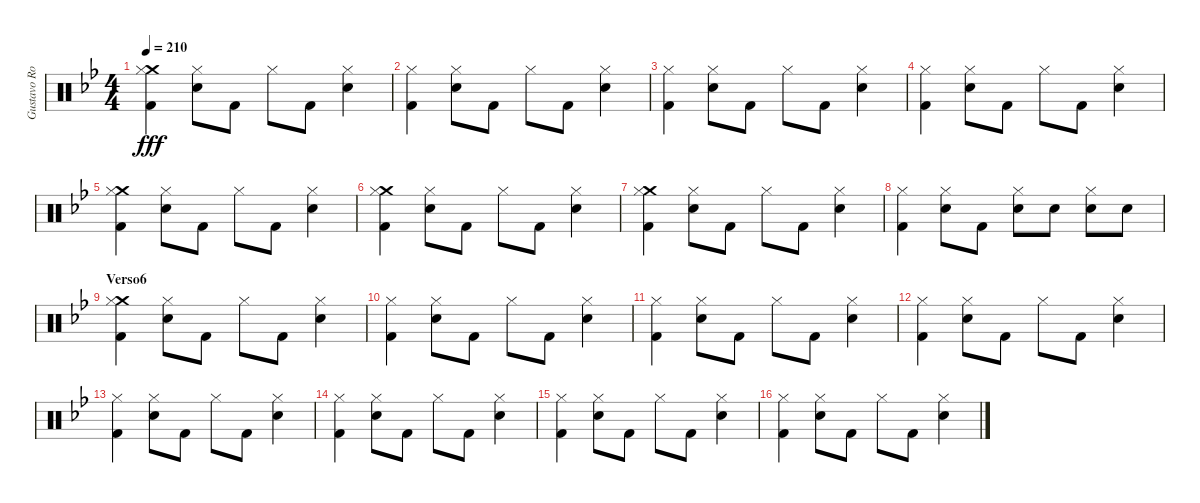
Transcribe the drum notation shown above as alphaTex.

\track ("Gustavo Rowek" "Gustavo Ro") {instrument percussion}
\staff {score}
\articulation defaults
\ts (4 4)
\tempo 210
\clef neutral
\ks gminor
("Crash medium (hit)" "Hi-Hat (closed)" "Kick (hit) 2").4{dy fff} ("Hi-Hat (closed)" "Snare (hit) 2").8 "Kick (hit) 2".8 "Hi-Hat (closed)".8 "Kick (hit) 2".8 ("Hi-Hat (closed)" "Snare (hit) 2").4 |
("Hi-Hat (closed)" "Kick (hit) 2").4 ("Hi-Hat (closed)" "Snare (hit) 2").8 "Kick (hit) 2".8 "Hi-Hat (closed)".8 "Kick (hit) 2".8 ("Hi-Hat (closed)" "Snare (hit) 2").4 |
("Hi-Hat (closed)" "Kick (hit) 2").4 ("Hi-Hat (closed)" "Snare (hit) 2").8 "Kick (hit) 2".8 "Hi-Hat (closed)".8 "Kick (hit) 2".8 ("Hi-Hat (closed)" "Snare (hit) 2").4 |
("Hi-Hat (closed)" "Kick (hit) 2").4 ("Hi-Hat (closed)" "Snare (hit) 2").8 "Kick (hit) 2".8 "Hi-Hat (closed)".8 "Kick (hit) 2".8 ("Hi-Hat (closed)" "Snare (hit) 2").4 |
("Crash medium (hit)" "Hi-Hat (closed)" "Kick (hit) 2").4 ("Hi-Hat (closed)" "Snare (hit) 2").8 "Kick (hit) 2".8 "Hi-Hat (closed)".8 "Kick (hit) 2".8 ("Hi-Hat (closed)" "Snare (hit) 2").4 |
("Crash medium (hit)" "Hi-Hat (closed)" "Kick (hit) 2").4 ("Hi-Hat (closed)" "Snare (hit) 2").8 "Kick (hit) 2".8 "Hi-Hat (closed)".8 "Kick (hit) 2".8 ("Hi-Hat (closed)" "Snare (hit) 2").4 |
("Crash medium (hit)" "Hi-Hat (closed)" "Kick (hit) 2").4 ("Hi-Hat (closed)" "Snare (hit) 2").8 "Kick (hit) 2".8 "Hi-Hat (closed)".8 "Kick (hit) 2".8 ("Hi-Hat (closed)" "Snare (hit) 2").4 |
("Hi-Hat (closed)" "Kick (hit) 2").4 ("Hi-Hat (closed)" "Snare (hit) 2").8 "Kick (hit) 2".8 ("Hi-Hat (closed)" "Snare (hit) 2").8 "Snare (hit) 2".8 ("Hi-Hat (closed)" "Snare (hit) 2").8 "Snare (hit) 2".8 |
\section ("" "Verso6")
("Crash medium (hit)" "Hi-Hat (closed)" "Kick (hit) 2").4 ("Hi-Hat (closed)" "Snare (hit) 2").8 "Kick (hit) 2".8 "Hi-Hat (closed)".8 "Kick (hit) 2".8 ("Hi-Hat (closed)" "Snare (hit) 2").4 |
("Hi-Hat (closed)" "Kick (hit) 2").4 ("Hi-Hat (closed)" "Snare (hit) 2").8 "Kick (hit) 2".8 "Hi-Hat (closed)".8 "Kick (hit) 2".8 ("Hi-Hat (closed)" "Snare (hit) 2").4 |
("Hi-Hat (closed)" "Kick (hit) 2").4 ("Hi-Hat (closed)" "Snare (hit) 2").8 "Kick (hit) 2".8 "Hi-Hat (closed)".8 "Kick (hit) 2".8 ("Hi-Hat (closed)" "Snare (hit) 2").4 |
("Hi-Hat (closed)" "Kick (hit) 2").4 ("Hi-Hat (closed)" "Snare (hit) 2").8 "Kick (hit) 2".8 "Hi-Hat (closed)".8 "Kick (hit) 2".8 ("Hi-Hat (closed)" "Snare (hit) 2").4 |
("Hi-Hat (closed)" "Kick (hit) 2").4 ("Hi-Hat (closed)" "Snare (hit) 2").8 "Kick (hit) 2".8 "Hi-Hat (closed)".8 "Kick (hit) 2".8 ("Hi-Hat (closed)" "Snare (hit) 2").4 |
("Hi-Hat (closed)" "Kick (hit) 2").4 ("Hi-Hat (closed)" "Snare (hit) 2").8 "Kick (hit) 2".8 "Hi-Hat (closed)".8 "Kick (hit) 2".8 ("Hi-Hat (closed)" "Snare (hit) 2").4 |
("Hi-Hat (closed)" "Kick (hit) 2").4 ("Hi-Hat (closed)" "Snare (hit) 2").8 "Kick (hit) 2".8 "Hi-Hat (closed)".8 "Kick (hit) 2".8 ("Hi-Hat (closed)" "Snare (hit) 2").4 |
("Hi-Hat (closed)" "Kick (hit) 2").4 ("Hi-Hat (closed)" "Snare (hit) 2").8 "Kick (hit) 2".8 "Hi-Hat (closed)".8 "Kick (hit) 2".8 ("Hi-Hat (closed)" "Snare (hit) 2").4
